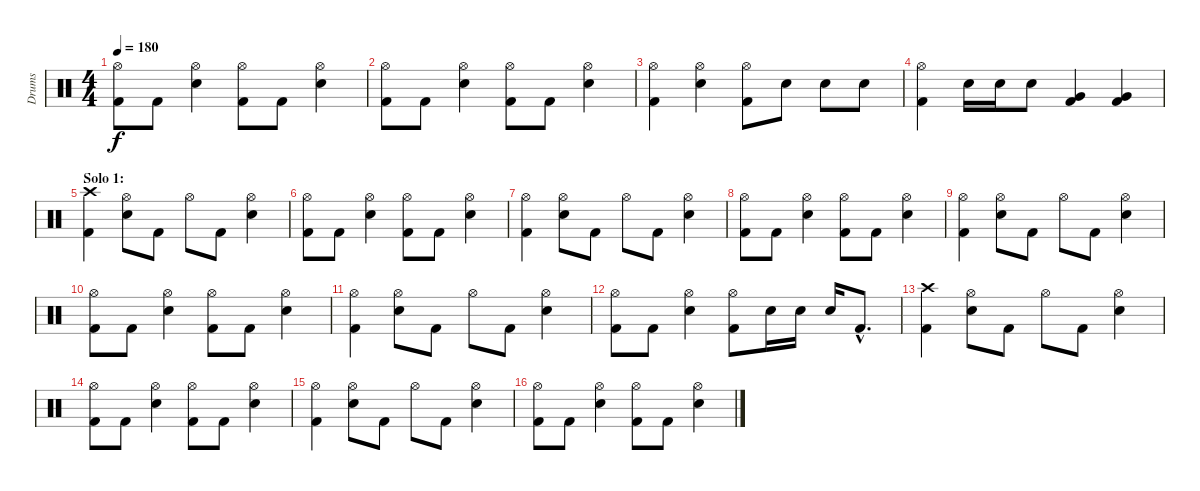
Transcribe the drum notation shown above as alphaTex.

\track ("Drums" "Drums") {instrument percussion}
\staff {score}
\articulation defaults
\ts (4 4)
\tempo 180
\clef neutral
\ks c
("Hi-Hat (open)" "Kick (hit) 2").8{dy f} "Kick (hit) 2".8 ("Hi-Hat (open)" "Electric Snare (hit)").4 ("Hi-Hat (open)" "Kick (hit) 2").8 "Kick (hit) 2".8 ("Hi-Hat (open)" "Electric Snare (hit)").4 |
("Hi-Hat (open)" "Kick (hit) 2").8 "Kick (hit) 2".8 ("Hi-Hat (open)" "Electric Snare (hit)").4 ("Hi-Hat (open)" "Kick (hit) 2").8 "Kick (hit) 2".8 ("Hi-Hat (open)" "Electric Snare (hit)").4 |
("Hi-Hat (open)" "Kick (hit) 2").4 ("Hi-Hat (open)" "Electric Snare (hit)").4 ("Hi-Hat (open)" "Kick (hit) 2").8 "Electric Snare (hit)".8 "Electric Snare (hit)".8 "Electric Snare (hit)".8 |
("Hi-Hat (open)" "Kick (hit) 2").4 "Electric Snare (hit)".16 "Electric Snare (hit)".16 "Electric Snare (hit)".8 ("Very Low Tom (hit)" "Kick (hit) 2").4 ("Very Low Tom (hit)" "Kick (hit) 2").4 |
\section ("" "Solo 1:")
("Crash high (hit)" "Kick (hit) 2").4 ("Hi-Hat (open)" "Electric Snare (hit)").8 "Kick (hit) 2".8 "Hi-Hat (open)".8 "Kick (hit) 2".8 ("Hi-Hat (open)" "Electric Snare (hit)").4 |
("Hi-Hat (open)" "Kick (hit) 2").8 "Kick (hit) 2".8 ("Hi-Hat (open)" "Electric Snare (hit)").4 ("Hi-Hat (open)" "Kick (hit) 2").8 "Kick (hit) 2".8 ("Hi-Hat (open)" "Electric Snare (hit)").4 |
("Hi-Hat (open)" "Kick (hit) 2").4 ("Hi-Hat (open)" "Electric Snare (hit)").8 "Kick (hit) 2".8 "Hi-Hat (open)".8 "Kick (hit) 2".8 ("Hi-Hat (open)" "Electric Snare (hit)").4 |
("Hi-Hat (open)" "Kick (hit) 2").8 "Kick (hit) 2".8 ("Hi-Hat (open)" "Electric Snare (hit)").4 ("Hi-Hat (open)" "Kick (hit) 2").8 "Kick (hit) 2".8 ("Hi-Hat (open)" "Electric Snare (hit)").4 |
("Hi-Hat (open)" "Kick (hit) 2").4 ("Hi-Hat (open)" "Electric Snare (hit)").8 "Kick (hit) 2".8 "Hi-Hat (open)".8 "Kick (hit) 2".8 ("Hi-Hat (open)" "Electric Snare (hit)").4 |
("Hi-Hat (open)" "Kick (hit) 2").8 "Kick (hit) 2".8 ("Hi-Hat (open)" "Electric Snare (hit)").4 ("Hi-Hat (open)" "Kick (hit) 2").8 "Kick (hit) 2".8 ("Hi-Hat (open)" "Electric Snare (hit)").4 |
("Hi-Hat (open)" "Kick (hit) 2").4 ("Hi-Hat (open)" "Electric Snare (hit)").8 "Kick (hit) 2".8 "Hi-Hat (open)".8 "Kick (hit) 2".8 ("Hi-Hat (open)" "Electric Snare (hit)").4 |
("Hi-Hat (open)" "Kick (hit) 2").8 "Kick (hit) 2".8 ("Hi-Hat (open)" "Electric Snare (hit)").4 ("Hi-Hat (open)" "Kick (hit) 2").8 "Electric Snare (hit)".16 "Electric Snare (hit)".16 "Electric Snare (hit)".16 "Kick (hit) 2"{hac}.8{d} |
("Crash high (hit)" "Kick (hit) 2").4 ("Hi-Hat (open)" "Electric Snare (hit)").8 "Kick (hit) 2".8 "Hi-Hat (open)".8 "Kick (hit) 2".8 ("Hi-Hat (open)" "Electric Snare (hit)").4 |
("Hi-Hat (open)" "Kick (hit) 2").8 "Kick (hit) 2".8 ("Hi-Hat (open)" "Electric Snare (hit)").4 ("Hi-Hat (open)" "Kick (hit) 2").8 "Kick (hit) 2".8 ("Hi-Hat (open)" "Electric Snare (hit)").4 |
("Hi-Hat (open)" "Kick (hit) 2").4 ("Hi-Hat (open)" "Electric Snare (hit)").8 "Kick (hit) 2".8 "Hi-Hat (open)".8 "Kick (hit) 2".8 ("Hi-Hat (open)" "Electric Snare (hit)").4 |
("Hi-Hat (open)" "Kick (hit) 2").8 "Kick (hit) 2".8 ("Hi-Hat (open)" "Electric Snare (hit)").4 ("Hi-Hat (open)" "Kick (hit) 2").8 "Kick (hit) 2".8 ("Hi-Hat (open)" "Electric Snare (hit)").4
